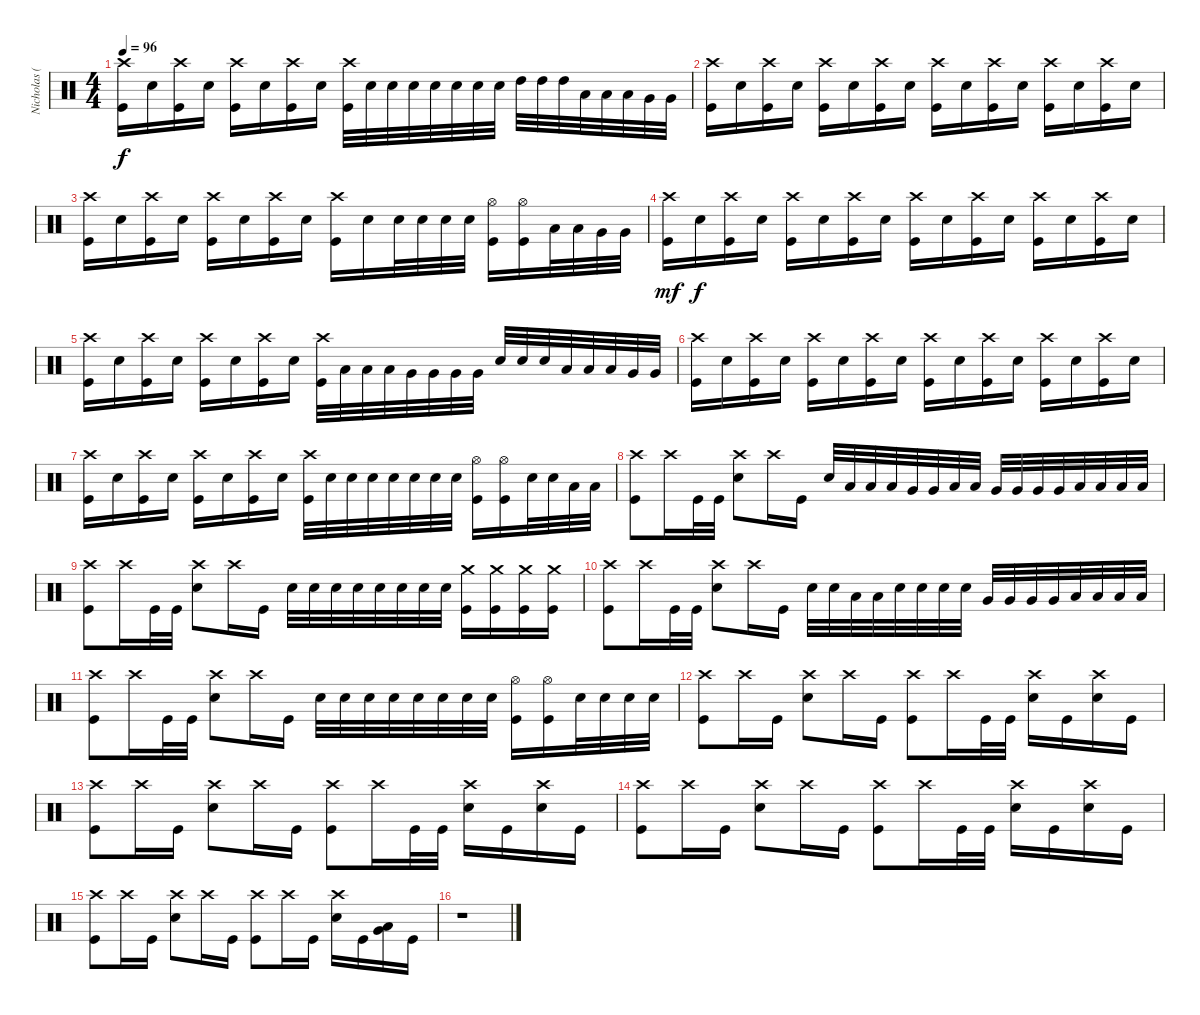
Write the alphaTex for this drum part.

\track ("Nicholas (Drums)" "Nicholas (") {instrument percussion}
\staff {score}
\articulation defaults
\ts (4 4)
\tempo 96
\clef neutral
\ks c
("Crash high (hit)" "Kick (hit)").16{dy f} "Electric Snare (hit)".16 ("Crash high (hit)" "Kick (hit)").16 "Electric Snare (hit)".16 ("Crash high (hit)" "Kick (hit)").16 "Electric Snare (hit)".16 ("Crash high (hit)" "Kick (hit)").16 "Electric Snare (hit)".16 ("Crash high (hit)" "Kick (hit)").32 "Electric Snare (hit)".32 "Electric Snare (hit)".32 "Electric Snare (hit)".32 "Electric Snare (hit)".32 "Electric Snare (hit)".32 "Electric Snare (hit)".32 "Electric Snare (hit)".32 "High Tom (hit)".32 "High Tom (hit)".32 "High Tom (hit)".32 "Low Tom (hit)".32 "Low Tom (hit)".32 "Low Tom (hit)".32 "Very Low Tom (hit)".32 "Very Low Tom (hit)".32 |
("Crash high (hit)" "Kick (hit)").16 "Electric Snare (hit)".16 ("Crash high (hit)" "Kick (hit)").16 "Electric Snare (hit)".16 ("Crash high (hit)" "Kick (hit)").16 "Electric Snare (hit)".16 ("Crash high (hit)" "Kick (hit)").16 "Electric Snare (hit)".16 ("Crash high (hit)" "Kick (hit)").16 "Electric Snare (hit)".16 ("Crash high (hit)" "Kick (hit)").16 "Electric Snare (hit)".16 ("Crash high (hit)" "Kick (hit)").16 "Electric Snare (hit)".16 ("Crash high (hit)" "Kick (hit)").16 "Electric Snare (hit)".16 |
("Crash high (hit)" "Kick (hit)").16 "Electric Snare (hit)".16 ("Crash high (hit)" "Kick (hit)").16 "Electric Snare (hit)".16 ("Crash high (hit)" "Kick (hit)").16 "Electric Snare (hit)".16 ("Crash high (hit)" "Kick (hit)").16 "Electric Snare (hit)".16 ("Crash high (hit)" "Kick (hit)").16 "Electric Snare (hit)".16 "Electric Snare (hit)".32 "Electric Snare (hit)".32 "Electric Snare (hit)".32 "Electric Snare (hit)".32 ("Hi-Hat (open)" "Kick (hit)").16 ("Hi-Hat (open)" "Kick (hit)").16 "Low Tom (hit)".32 "Low Tom (hit)".32 "Very Low Tom (hit)".32 "Very Low Tom (hit)".32 |
("Crash high (hit)" "Kick (hit)").16{dy mf} "Electric Snare (hit)".16{dy f} ("Crash high (hit)" "Kick (hit)").16 "Electric Snare (hit)".16 ("Crash high (hit)" "Kick (hit)").16 "Electric Snare (hit)".16 ("Crash high (hit)" "Kick (hit)").16 "Electric Snare (hit)".16 ("Crash high (hit)" "Kick (hit)").16 "Electric Snare (hit)".16 ("Crash high (hit)" "Kick (hit)").16 "Electric Snare (hit)".16 ("Crash high (hit)" "Kick (hit)").16 "Electric Snare (hit)".16 ("Crash high (hit)" "Kick (hit)").16 "Electric Snare (hit)".16 |
("Crash high (hit)" "Kick (hit)").16 "Electric Snare (hit)".16 ("Crash high (hit)" "Kick (hit)").16 "Electric Snare (hit)".16 ("Crash high (hit)" "Kick (hit)").16 "Electric Snare (hit)".16 ("Crash high (hit)" "Kick (hit)").16 "Electric Snare (hit)".16 ("Crash high (hit)" "Kick (hit)").32 "Low Tom (hit)".32 "Low Tom (hit)".32 "Low Tom (hit)".32 "Very Low Tom (hit)".32 "Very Low Tom (hit)".32 "Very Low Tom (hit)".32 "Very Low Tom (hit)".32 "Electric Snare (hit)".32 "Electric Snare (hit)".32 "Electric Snare (hit)".32 "Low Tom (hit)".32 "Low Tom (hit)".32 "Low Tom (hit)".32 "Very Low Tom (hit)".32 "Very Low Tom (hit)".32 |
("Crash high (hit)" "Kick (hit)").16 "Electric Snare (hit)".16 ("Crash high (hit)" "Kick (hit)").16 "Electric Snare (hit)".16 ("Crash high (hit)" "Kick (hit)").16 "Electric Snare (hit)".16 ("Crash high (hit)" "Kick (hit)").16 "Electric Snare (hit)".16 ("Crash high (hit)" "Kick (hit)").16 "Electric Snare (hit)".16 ("Crash high (hit)" "Kick (hit)").16 "Electric Snare (hit)".16 ("Crash high (hit)" "Kick (hit)").16 "Electric Snare (hit)".16 ("Crash high (hit)" "Kick (hit)").16 "Electric Snare (hit)".16 |
("Crash high (hit)" "Kick (hit)").16 "Electric Snare (hit)".16 ("Crash high (hit)" "Kick (hit)").16 "Electric Snare (hit)".16 ("Crash high (hit)" "Kick (hit)").16 "Electric Snare (hit)".16 ("Crash high (hit)" "Kick (hit)").16 "Electric Snare (hit)".16 ("Crash high (hit)" "Kick (hit)").32 "Electric Snare (hit)".32 "Electric Snare (hit)".32 "Electric Snare (hit)".32 "Electric Snare (hit)".32 "Electric Snare (hit)".32 "Electric Snare (hit)".32 "Electric Snare (hit)".32 ("Hi-Hat (open)" "Kick (hit)").16 ("Hi-Hat (open)" "Kick (hit)").16 "Electric Snare (hit)".32 "Electric Snare (hit)".32 "Low Tom (hit)".32 "Low Tom (hit)".32 |
("Crash high (hit)" "Kick (hit)").8 "Crash high (hit)".16 "Kick (hit)".32 "Kick (hit)".32 ("Crash high (hit)" "Electric Snare (hit)").8 "Crash high (hit)".16 "Kick (hit)".16 "Electric Snare (hit)".32 "Low Tom (hit)".32 "Low Tom (hit)".32 "Low Tom (hit)".32 "Very Low Tom (hit)".32 "Very Low Tom (hit)".32 "Low Floor Tom (hit)".32 "Low Floor Tom (hit)".32 "Very Low Tom (hit)".32 "Very Low Tom (hit)".32 "Very Low Tom (hit)".32 "Very Low Tom (hit)".32 "Low Floor Tom (hit)".32 "Low Floor Tom (hit)".32 "Low Floor Tom (hit)".32 "Low Floor Tom (hit)".32 |
("Crash high (hit)" "Kick (hit)").8 "Crash high (hit)".16 "Kick (hit)".32 "Kick (hit)".32 ("Crash high (hit)" "Electric Snare (hit)").8 "Crash high (hit)".16 "Kick (hit)".16 "Electric Snare (hit)".32 "Electric Snare (hit)".32 "Electric Snare (hit)".32 "Electric Snare (hit)".32 "Electric Snare (hit)".32 "Electric Snare (hit)".32 "Electric Snare (hit)".32 "Electric Snare (hit)".32 ("Crash medium (hit)" "Kick (hit)").16 ("Crash medium (hit)" "Kick (hit)").16 ("Crash medium (hit)" "Kick (hit)").16 ("Crash medium (hit)" "Kick (hit)").16 |
("Crash high (hit)" "Kick (hit)").8 "Crash high (hit)".16 "Kick (hit)".32 "Kick (hit)".32 ("Crash high (hit)" "Electric Snare (hit)").8 "Crash high (hit)".16 "Kick (hit)".16 "Electric Snare (hit)".32 "Electric Snare (hit)".32 "Low Tom (hit)".32 "Low Tom (hit)".32 "Electric Snare (hit)".32 "Electric Snare (hit)".32 "Electric Snare (hit)".32 "Electric Snare (hit)".32 "Very Low Tom (hit)".32 "Very Low Tom (hit)".32 "Very Low Tom (hit)".32 "Very Low Tom (hit)".32 "Low Floor Tom (hit)".32 "Low Floor Tom (hit)".32 "Low Floor Tom (hit)".32 "Low Floor Tom (hit)".32 |
("Crash high (hit)" "Kick (hit)").8 "Crash high (hit)".16 "Kick (hit)".32 "Kick (hit)".32 ("Crash high (hit)" "Electric Snare (hit)").8 "Crash high (hit)".16 "Kick (hit)".16 "Electric Snare (hit)".32 "Electric Snare (hit)".32 "Electric Snare (hit)".32 "Electric Snare (hit)".32 "Electric Snare (hit)".32 "Electric Snare (hit)".32 "Electric Snare (hit)".32 "Electric Snare (hit)".32 ("Hi-Hat (open)" "Kick (hit)").16 ("Hi-Hat (open)" "Kick (hit)").16 "Electric Snare (hit)".32 "Electric Snare (hit)".32 "Electric Snare (hit)".32 "Electric Snare (hit)".32 |
("Crash high (hit)" "Kick (hit)").8 "Crash high (hit)".16 "Kick (hit)".16 ("Crash high (hit)" "Electric Snare (hit)").8 "Crash high (hit)".16 "Kick (hit)".16 ("Crash high (hit)" "Kick (hit)").8 "Crash high (hit)".16 "Kick (hit)".32 "Kick (hit)".32 ("Crash high (hit)" "Electric Snare (hit)").16 "Kick (hit)".16 ("Crash high (hit)" "Electric Snare (hit)").16 "Kick (hit)".16 |
("Crash high (hit)" "Kick (hit)").8 "Crash high (hit)".16 "Kick (hit)".16 ("Crash high (hit)" "Electric Snare (hit)").8 "Crash high (hit)".16 "Kick (hit)".16 ("Crash high (hit)" "Kick (hit)").8 "Crash high (hit)".16 "Kick (hit)".32 "Kick (hit)".32 ("Crash high (hit)" "Electric Snare (hit)").16 "Kick (hit)".16 ("Crash high (hit)" "Electric Snare (hit)").16 "Kick (hit)".16 |
("Crash high (hit)" "Kick (hit)").8 "Crash high (hit)".16 "Kick (hit)".16 ("Crash high (hit)" "Electric Snare (hit)").8 "Crash high (hit)".16 "Kick (hit)".16 ("Crash high (hit)" "Kick (hit)").8 "Crash high (hit)".16 "Kick (hit)".32 "Kick (hit)".32 ("Crash high (hit)" "Electric Snare (hit)").16 "Kick (hit)".16 ("Crash high (hit)" "Electric Snare (hit)").16 "Kick (hit)".16 |
("Crash high (hit)" "Kick (hit)").8 "Crash high (hit)".16 "Kick (hit)".16 ("Crash high (hit)" "Electric Snare (hit)").8 "Crash high (hit)".16 "Kick (hit)".16 ("Crash high (hit)" "Kick (hit)").8 "Crash high (hit)".16 "Kick (hit)".16 ("Crash high (hit)" "Electric Snare (hit)").16 "Kick (hit)".16 ("Low Tom (hit)" "Very Low Tom (hit)").16{bu 60} "Kick (hit)".16 |
r.1
